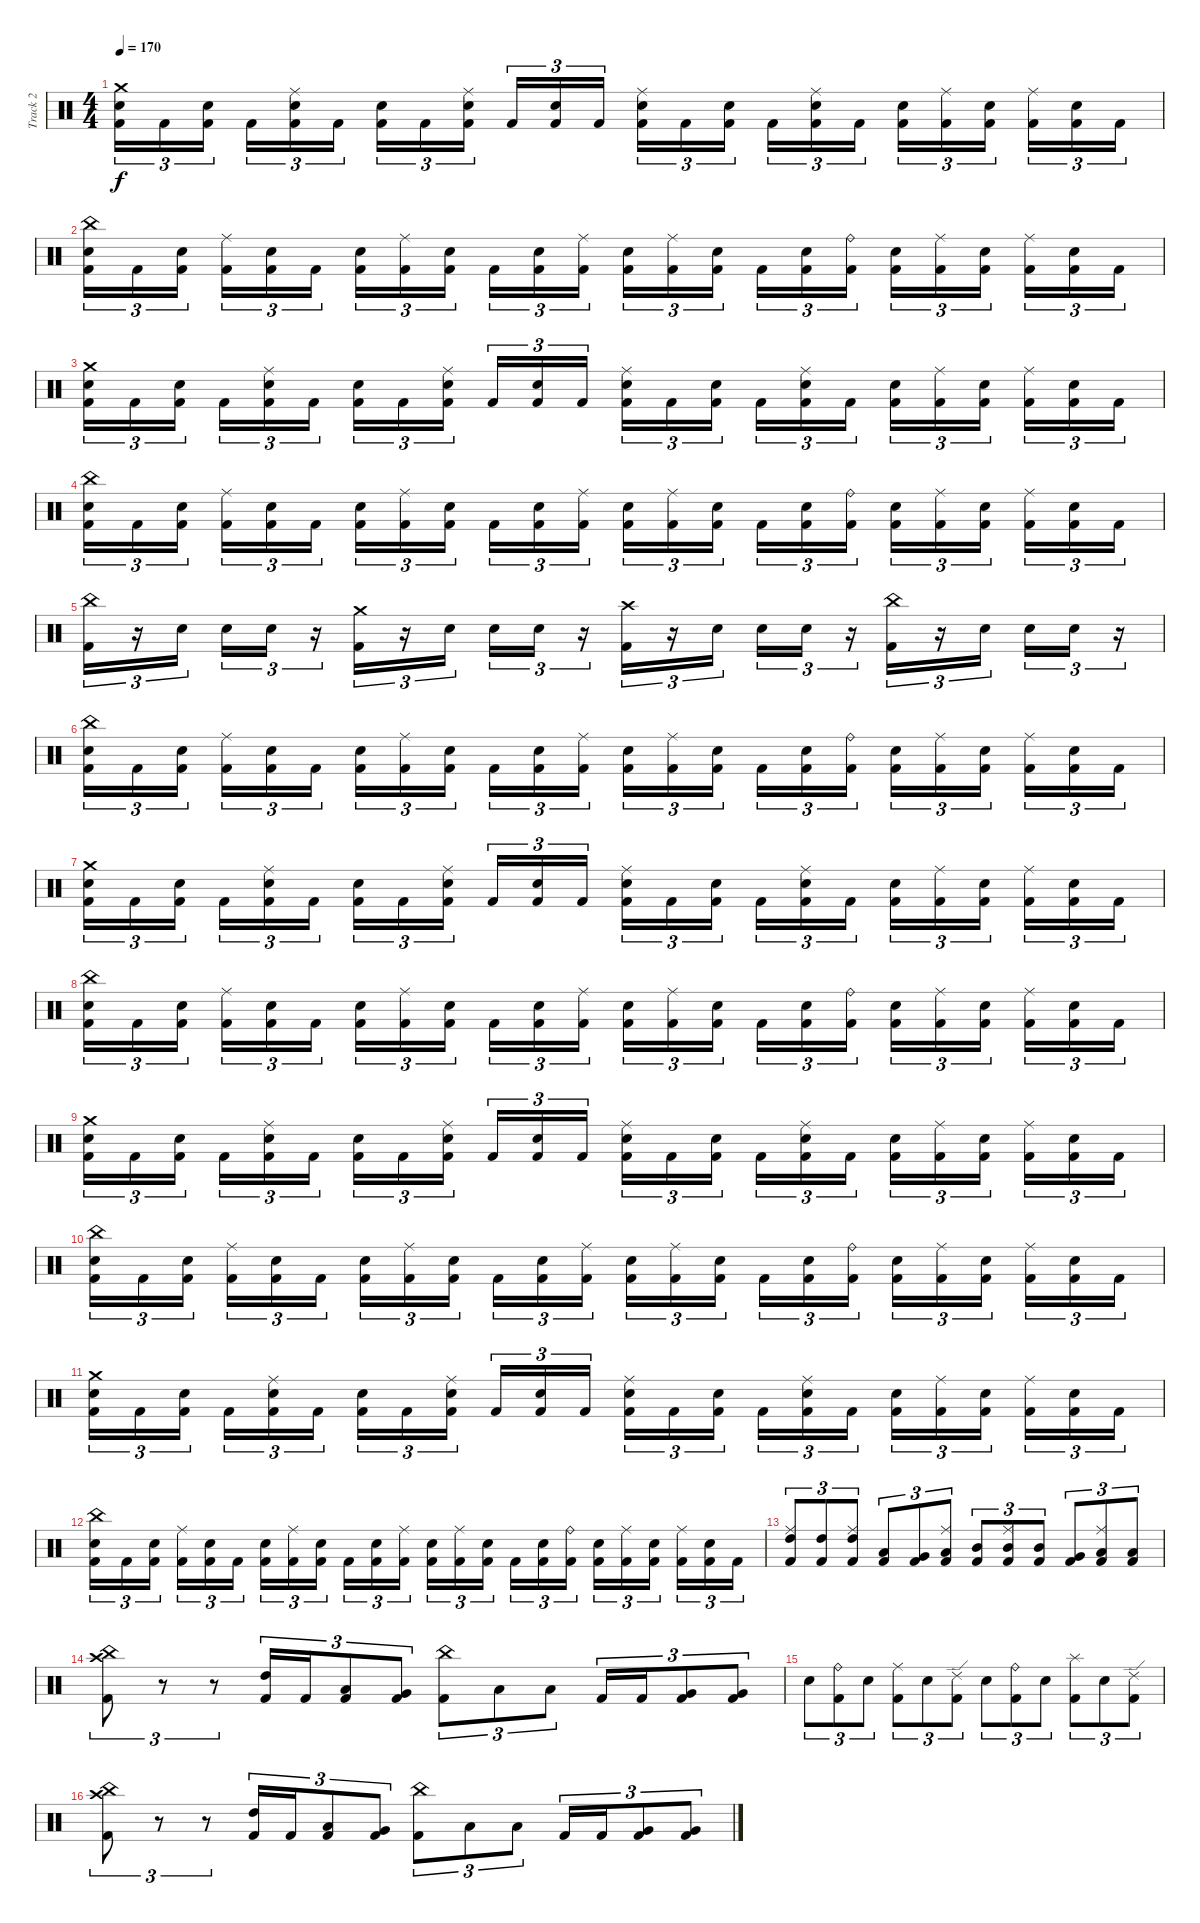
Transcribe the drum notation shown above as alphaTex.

\track ("Track 2" "Track 2") {instrument percussion}
\staff {score}
\articulation defaults
\ts (4 4)
\tempo 170
\clef neutral
\ks c
("Crash medium (hit)" "Electric Snare (hit)" "Kick (hit) 2").16{tu (3 2) dy f} "Kick (hit) 2".16{tu (3 2)} ("Electric Snare (hit)" "Kick (hit) 2").16{tu (3 2)} "Kick (hit) 2".16{tu (3 2)} ("Ride (middle)" "Electric Snare (hit)" "Kick (hit) 2").16{tu (3 2)} "Kick (hit) 2".16{tu (3 2)} ("Electric Snare (hit)" "Kick (hit) 2").16{tu (3 2)} "Kick (hit) 2".16{tu (3 2)} ("Ride (middle)" "Electric Snare (hit)" "Kick (hit) 2").16{tu (3 2)} "Kick (hit) 2".16{tu (3 2)} ("Electric Snare (hit)" "Kick (hit) 2").16{tu (3 2)} "Kick (hit) 2".16{tu (3 2)} ("Ride (middle)" "Electric Snare (hit)" "Kick (hit) 2").16{tu (3 2)} "Kick (hit) 2".16{tu (3 2)} ("Electric Snare (hit)" "Kick (hit) 2").16{tu (3 2)} "Kick (hit) 2".16{tu (3 2)} ("Ride (middle)" "Electric Snare (hit)" "Kick (hit) 2").16{tu (3 2)} "Kick (hit) 2".16{tu (3 2)} ("Electric Snare (hit)" "Kick (hit) 2").16{tu (3 2)} ("Ride (middle)" "Kick (hit) 2").16{tu (3 2)} ("Electric Snare (hit)" "Kick (hit) 2").16{tu (3 2)} ("Ride (middle)" "Kick (hit) 2").16{tu (3 2)} ("Electric Snare (hit)" "Kick (hit) 2").16{tu (3 2)} "Kick (hit) 2".16{tu (3 2)} |
("China (hit)" "Electric Snare (hit)" "Kick (hit) 2").16{tu (3 2)} "Kick (hit) 2".16{tu (3 2)} ("Electric Snare (hit)" "Kick (hit) 2").16{tu (3 2)} ("Ride (middle)" "Kick (hit) 2").16{tu (3 2)} ("Electric Snare (hit)" "Kick (hit) 2").16{tu (3 2)} "Kick (hit) 2".16{tu (3 2)} ("Electric Snare (hit)" "Kick (hit) 2").16{tu (3 2)} ("Ride (middle)" "Kick (hit) 2").16{tu (3 2)} ("Electric Snare (hit)" "Kick (hit) 2").16{tu (3 2)} "Kick (hit) 2".16{tu (3 2)} ("Electric Snare (hit)" "Kick (hit) 2").16{tu (3 2)} ("Ride (middle)" "Kick (hit) 2").16{tu (3 2)} ("Electric Snare (hit)" "Kick (hit) 2").16{tu (3 2)} ("Ride (middle)" "Kick (hit) 2").16{tu (3 2)} ("Electric Snare (hit)" "Kick (hit) 2").16{tu (3 2)} "Kick (hit) 2".16{tu (3 2)} ("Electric Snare (hit)" "Kick (hit) 2").16{tu (3 2)} ("Ride (bell)" "Kick (hit) 2").16{tu (3 2)} ("Electric Snare (hit)" "Kick (hit) 2").16{tu (3 2)} ("Ride (middle)" "Kick (hit) 2").16{tu (3 2)} ("Electric Snare (hit)" "Kick (hit) 2").16{tu (3 2)} ("Ride (middle)" "Kick (hit) 2").16{tu (3 2)} ("Electric Snare (hit)" "Kick (hit) 2").16{tu (3 2)} "Kick (hit) 2".16{tu (3 2)} |
("Crash medium (hit)" "Electric Snare (hit)" "Kick (hit) 2").16{tu (3 2)} "Kick (hit) 2".16{tu (3 2)} ("Electric Snare (hit)" "Kick (hit) 2").16{tu (3 2)} "Kick (hit) 2".16{tu (3 2)} ("Ride (middle)" "Electric Snare (hit)" "Kick (hit) 2").16{tu (3 2)} "Kick (hit) 2".16{tu (3 2)} ("Electric Snare (hit)" "Kick (hit) 2").16{tu (3 2)} "Kick (hit) 2".16{tu (3 2)} ("Ride (middle)" "Electric Snare (hit)" "Kick (hit) 2").16{tu (3 2)} "Kick (hit) 2".16{tu (3 2)} ("Electric Snare (hit)" "Kick (hit) 2").16{tu (3 2)} "Kick (hit) 2".16{tu (3 2)} ("Ride (middle)" "Electric Snare (hit)" "Kick (hit) 2").16{tu (3 2)} "Kick (hit) 2".16{tu (3 2)} ("Electric Snare (hit)" "Kick (hit) 2").16{tu (3 2)} "Kick (hit) 2".16{tu (3 2)} ("Ride (middle)" "Electric Snare (hit)" "Kick (hit) 2").16{tu (3 2)} "Kick (hit) 2".16{tu (3 2)} ("Electric Snare (hit)" "Kick (hit) 2").16{tu (3 2)} ("Ride (middle)" "Kick (hit) 2").16{tu (3 2)} ("Electric Snare (hit)" "Kick (hit) 2").16{tu (3 2)} ("Ride (middle)" "Kick (hit) 2").16{tu (3 2)} ("Electric Snare (hit)" "Kick (hit) 2").16{tu (3 2)} "Kick (hit) 2".16{tu (3 2)} |
("China (hit)" "Electric Snare (hit)" "Kick (hit) 2").16{tu (3 2)} "Kick (hit) 2".16{tu (3 2)} ("Electric Snare (hit)" "Kick (hit) 2").16{tu (3 2)} ("Ride (middle)" "Kick (hit) 2").16{tu (3 2)} ("Electric Snare (hit)" "Kick (hit) 2").16{tu (3 2)} "Kick (hit) 2".16{tu (3 2)} ("Electric Snare (hit)" "Kick (hit) 2").16{tu (3 2)} ("Ride (middle)" "Kick (hit) 2").16{tu (3 2)} ("Electric Snare (hit)" "Kick (hit) 2").16{tu (3 2)} "Kick (hit) 2".16{tu (3 2)} ("Electric Snare (hit)" "Kick (hit) 2").16{tu (3 2)} ("Ride (middle)" "Kick (hit) 2").16{tu (3 2)} ("Electric Snare (hit)" "Kick (hit) 2").16{tu (3 2)} ("Ride (middle)" "Kick (hit) 2").16{tu (3 2)} ("Electric Snare (hit)" "Kick (hit) 2").16{tu (3 2)} "Kick (hit) 2".16{tu (3 2)} ("Electric Snare (hit)" "Kick (hit) 2").16{tu (3 2)} ("Ride (bell)" "Kick (hit) 2").16{tu (3 2)} ("Electric Snare (hit)" "Kick (hit) 2").16{tu (3 2)} ("Ride (middle)" "Kick (hit) 2").16{tu (3 2)} ("Electric Snare (hit)" "Kick (hit) 2").16{tu (3 2)} ("Ride (middle)" "Kick (hit) 2").16{tu (3 2)} ("Electric Snare (hit)" "Kick (hit) 2").16{tu (3 2)} "Kick (hit) 2".16{tu (3 2)} |
("China (hit)" "Kick (hit) 2").16{tu (3 2)} r.16{tu (3 2)} "Electric Snare (hit)".16{tu (3 2)} "Electric Snare (hit)".16{tu (3 2)} "Electric Snare (hit)".16{tu (3 2)} r.16{tu (3 2)} ("Crash medium (hit)" "Kick (hit) 2").16{tu (3 2)} r.16{tu (3 2)} "Electric Snare (hit)".16{tu (3 2)} "Electric Snare (hit)".16{tu (3 2)} "Electric Snare (hit)".16{tu (3 2)} r.16{tu (3 2)} ("Crash high (hit)" "Kick (hit) 2").16{tu (3 2)} r.16{tu (3 2)} "Electric Snare (hit)".16{tu (3 2)} "Electric Snare (hit)".16{tu (3 2)} "Electric Snare (hit)".16{tu (3 2)} r.16{tu (3 2)} ("China (hit)" "Kick (hit) 2").16{tu (3 2)} r.16{tu (3 2)} "Electric Snare (hit)".16{tu (3 2)} "Electric Snare (hit)".16{tu (3 2)} "Electric Snare (hit)".16{tu (3 2)} r.16{tu (3 2)} |
("China (hit)" "Electric Snare (hit)" "Kick (hit) 2").16{tu (3 2)} "Kick (hit) 2".16{tu (3 2)} ("Electric Snare (hit)" "Kick (hit) 2").16{tu (3 2)} ("Ride (middle)" "Kick (hit) 2").16{tu (3 2)} ("Electric Snare (hit)" "Kick (hit) 2").16{tu (3 2)} "Kick (hit) 2".16{tu (3 2)} ("Electric Snare (hit)" "Kick (hit) 2").16{tu (3 2)} ("Ride (middle)" "Kick (hit) 2").16{tu (3 2)} ("Electric Snare (hit)" "Kick (hit) 2").16{tu (3 2)} "Kick (hit) 2".16{tu (3 2)} ("Electric Snare (hit)" "Kick (hit) 2").16{tu (3 2)} ("Ride (middle)" "Kick (hit) 2").16{tu (3 2)} ("Electric Snare (hit)" "Kick (hit) 2").16{tu (3 2)} ("Ride (middle)" "Kick (hit) 2").16{tu (3 2)} ("Electric Snare (hit)" "Kick (hit) 2").16{tu (3 2)} "Kick (hit) 2".16{tu (3 2)} ("Electric Snare (hit)" "Kick (hit) 2").16{tu (3 2)} ("Ride (bell)" "Kick (hit) 2").16{tu (3 2)} ("Electric Snare (hit)" "Kick (hit) 2").16{tu (3 2)} ("Ride (middle)" "Kick (hit) 2").16{tu (3 2)} ("Electric Snare (hit)" "Kick (hit) 2").16{tu (3 2)} ("Ride (middle)" "Kick (hit) 2").16{tu (3 2)} ("Electric Snare (hit)" "Kick (hit) 2").16{tu (3 2)} "Kick (hit) 2".16{tu (3 2)} |
("Crash medium (hit)" "Electric Snare (hit)" "Kick (hit) 2").16{tu (3 2)} "Kick (hit) 2".16{tu (3 2)} ("Electric Snare (hit)" "Kick (hit) 2").16{tu (3 2)} "Kick (hit) 2".16{tu (3 2)} ("Ride (middle)" "Electric Snare (hit)" "Kick (hit) 2").16{tu (3 2)} "Kick (hit) 2".16{tu (3 2)} ("Electric Snare (hit)" "Kick (hit) 2").16{tu (3 2)} "Kick (hit) 2".16{tu (3 2)} ("Ride (middle)" "Electric Snare (hit)" "Kick (hit) 2").16{tu (3 2)} "Kick (hit) 2".16{tu (3 2)} ("Electric Snare (hit)" "Kick (hit) 2").16{tu (3 2)} "Kick (hit) 2".16{tu (3 2)} ("Ride (middle)" "Electric Snare (hit)" "Kick (hit) 2").16{tu (3 2)} "Kick (hit) 2".16{tu (3 2)} ("Electric Snare (hit)" "Kick (hit) 2").16{tu (3 2)} "Kick (hit) 2".16{tu (3 2)} ("Ride (middle)" "Electric Snare (hit)" "Kick (hit) 2").16{tu (3 2)} "Kick (hit) 2".16{tu (3 2)} ("Electric Snare (hit)" "Kick (hit) 2").16{tu (3 2)} ("Ride (middle)" "Kick (hit) 2").16{tu (3 2)} ("Electric Snare (hit)" "Kick (hit) 2").16{tu (3 2)} ("Ride (middle)" "Kick (hit) 2").16{tu (3 2)} ("Electric Snare (hit)" "Kick (hit) 2").16{tu (3 2)} "Kick (hit) 2".16{tu (3 2)} |
("China (hit)" "Electric Snare (hit)" "Kick (hit) 2").16{tu (3 2)} "Kick (hit) 2".16{tu (3 2)} ("Electric Snare (hit)" "Kick (hit) 2").16{tu (3 2)} ("Ride (middle)" "Kick (hit) 2").16{tu (3 2)} ("Electric Snare (hit)" "Kick (hit) 2").16{tu (3 2)} "Kick (hit) 2".16{tu (3 2)} ("Electric Snare (hit)" "Kick (hit) 2").16{tu (3 2)} ("Ride (middle)" "Kick (hit) 2").16{tu (3 2)} ("Electric Snare (hit)" "Kick (hit) 2").16{tu (3 2)} "Kick (hit) 2".16{tu (3 2)} ("Electric Snare (hit)" "Kick (hit) 2").16{tu (3 2)} ("Ride (middle)" "Kick (hit) 2").16{tu (3 2)} ("Electric Snare (hit)" "Kick (hit) 2").16{tu (3 2)} ("Ride (middle)" "Kick (hit) 2").16{tu (3 2)} ("Electric Snare (hit)" "Kick (hit) 2").16{tu (3 2)} "Kick (hit) 2".16{tu (3 2)} ("Electric Snare (hit)" "Kick (hit) 2").16{tu (3 2)} ("Ride (bell)" "Kick (hit) 2").16{tu (3 2)} ("Electric Snare (hit)" "Kick (hit) 2").16{tu (3 2)} ("Ride (middle)" "Kick (hit) 2").16{tu (3 2)} ("Electric Snare (hit)" "Kick (hit) 2").16{tu (3 2)} ("Ride (middle)" "Kick (hit) 2").16{tu (3 2)} ("Electric Snare (hit)" "Kick (hit) 2").16{tu (3 2)} "Kick (hit) 2".16{tu (3 2)} |
("Crash medium (hit)" "Electric Snare (hit)" "Kick (hit) 2").16{tu (3 2)} "Kick (hit) 2".16{tu (3 2)} ("Electric Snare (hit)" "Kick (hit) 2").16{tu (3 2)} "Kick (hit) 2".16{tu (3 2)} ("Ride (middle)" "Electric Snare (hit)" "Kick (hit) 2").16{tu (3 2)} "Kick (hit) 2".16{tu (3 2)} ("Electric Snare (hit)" "Kick (hit) 2").16{tu (3 2)} "Kick (hit) 2".16{tu (3 2)} ("Ride (middle)" "Electric Snare (hit)" "Kick (hit) 2").16{tu (3 2)} "Kick (hit) 2".16{tu (3 2)} ("Electric Snare (hit)" "Kick (hit) 2").16{tu (3 2)} "Kick (hit) 2".16{tu (3 2)} ("Ride (middle)" "Electric Snare (hit)" "Kick (hit) 2").16{tu (3 2)} "Kick (hit) 2".16{tu (3 2)} ("Electric Snare (hit)" "Kick (hit) 2").16{tu (3 2)} "Kick (hit) 2".16{tu (3 2)} ("Ride (middle)" "Electric Snare (hit)" "Kick (hit) 2").16{tu (3 2)} "Kick (hit) 2".16{tu (3 2)} ("Electric Snare (hit)" "Kick (hit) 2").16{tu (3 2)} ("Ride (middle)" "Kick (hit) 2").16{tu (3 2)} ("Electric Snare (hit)" "Kick (hit) 2").16{tu (3 2)} ("Ride (middle)" "Kick (hit) 2").16{tu (3 2)} ("Electric Snare (hit)" "Kick (hit) 2").16{tu (3 2)} "Kick (hit) 2".16{tu (3 2)} |
("China (hit)" "Electric Snare (hit)" "Kick (hit) 2").16{tu (3 2)} "Kick (hit) 2".16{tu (3 2)} ("Electric Snare (hit)" "Kick (hit) 2").16{tu (3 2)} ("Ride (middle)" "Kick (hit) 2").16{tu (3 2)} ("Electric Snare (hit)" "Kick (hit) 2").16{tu (3 2)} "Kick (hit) 2".16{tu (3 2)} ("Electric Snare (hit)" "Kick (hit) 2").16{tu (3 2)} ("Ride (middle)" "Kick (hit) 2").16{tu (3 2)} ("Electric Snare (hit)" "Kick (hit) 2").16{tu (3 2)} "Kick (hit) 2".16{tu (3 2)} ("Electric Snare (hit)" "Kick (hit) 2").16{tu (3 2)} ("Ride (middle)" "Kick (hit) 2").16{tu (3 2)} ("Electric Snare (hit)" "Kick (hit) 2").16{tu (3 2)} ("Ride (middle)" "Kick (hit) 2").16{tu (3 2)} ("Electric Snare (hit)" "Kick (hit) 2").16{tu (3 2)} "Kick (hit) 2".16{tu (3 2)} ("Electric Snare (hit)" "Kick (hit) 2").16{tu (3 2)} ("Ride (bell)" "Kick (hit) 2").16{tu (3 2)} ("Electric Snare (hit)" "Kick (hit) 2").16{tu (3 2)} ("Ride (middle)" "Kick (hit) 2").16{tu (3 2)} ("Electric Snare (hit)" "Kick (hit) 2").16{tu (3 2)} ("Ride (middle)" "Kick (hit) 2").16{tu (3 2)} ("Electric Snare (hit)" "Kick (hit) 2").16{tu (3 2)} "Kick (hit) 2".16{tu (3 2)} |
("Crash medium (hit)" "Electric Snare (hit)" "Kick (hit) 2").16{tu (3 2)} "Kick (hit) 2".16{tu (3 2)} ("Electric Snare (hit)" "Kick (hit) 2").16{tu (3 2)} "Kick (hit) 2".16{tu (3 2)} ("Ride (middle)" "Electric Snare (hit)" "Kick (hit) 2").16{tu (3 2)} "Kick (hit) 2".16{tu (3 2)} ("Electric Snare (hit)" "Kick (hit) 2").16{tu (3 2)} "Kick (hit) 2".16{tu (3 2)} ("Ride (middle)" "Electric Snare (hit)" "Kick (hit) 2").16{tu (3 2)} "Kick (hit) 2".16{tu (3 2)} ("Electric Snare (hit)" "Kick (hit) 2").16{tu (3 2)} "Kick (hit) 2".16{tu (3 2)} ("Ride (middle)" "Electric Snare (hit)" "Kick (hit) 2").16{tu (3 2)} "Kick (hit) 2".16{tu (3 2)} ("Electric Snare (hit)" "Kick (hit) 2").16{tu (3 2)} "Kick (hit) 2".16{tu (3 2)} ("Ride (middle)" "Electric Snare (hit)" "Kick (hit) 2").16{tu (3 2)} "Kick (hit) 2".16{tu (3 2)} ("Electric Snare (hit)" "Kick (hit) 2").16{tu (3 2)} ("Ride (middle)" "Kick (hit) 2").16{tu (3 2)} ("Electric Snare (hit)" "Kick (hit) 2").16{tu (3 2)} ("Ride (middle)" "Kick (hit) 2").16{tu (3 2)} ("Electric Snare (hit)" "Kick (hit) 2").16{tu (3 2)} "Kick (hit) 2".16{tu (3 2)} |
("China (hit)" "Electric Snare (hit)" "Kick (hit) 2").16{tu (3 2)} "Kick (hit) 2".16{tu (3 2)} ("Electric Snare (hit)" "Kick (hit) 2").16{tu (3 2)} ("Ride (middle)" "Kick (hit) 2").16{tu (3 2)} ("Electric Snare (hit)" "Kick (hit) 2").16{tu (3 2)} "Kick (hit) 2".16{tu (3 2)} ("Electric Snare (hit)" "Kick (hit) 2").16{tu (3 2)} ("Ride (middle)" "Kick (hit) 2").16{tu (3 2)} ("Electric Snare (hit)" "Kick (hit) 2").16{tu (3 2)} "Kick (hit) 2".16{tu (3 2)} ("Electric Snare (hit)" "Kick (hit) 2").16{tu (3 2)} ("Ride (middle)" "Kick (hit) 2").16{tu (3 2)} ("Electric Snare (hit)" "Kick (hit) 2").16{tu (3 2)} ("Ride (middle)" "Kick (hit) 2").16{tu (3 2)} ("Electric Snare (hit)" "Kick (hit) 2").16{tu (3 2)} "Kick (hit) 2".16{tu (3 2)} ("Electric Snare (hit)" "Kick (hit) 2").16{tu (3 2)} ("Ride (bell)" "Kick (hit) 2").16{tu (3 2)} ("Electric Snare (hit)" "Kick (hit) 2").16{tu (3 2)} ("Ride (middle)" "Kick (hit) 2").16{tu (3 2)} ("Electric Snare (hit)" "Kick (hit) 2").16{tu (3 2)} ("Ride (middle)" "Kick (hit) 2").16{tu (3 2)} ("Electric Snare (hit)" "Kick (hit) 2").16{tu (3 2)} "Kick (hit) 2".16{tu (3 2)} |
("Ride (middle)" "High Tom (hit)" "Kick (hit) 2").8{tu (3 2)} ("High Tom (hit)" "Kick (hit) 2").8{tu (3 2)} ("Ride (middle)" "High Tom (hit)" "Kick (hit) 2").8{tu (3 2)} ("Low Tom (hit)" "Kick (hit) 2").8{tu (3 2)} ("Very Low Tom (hit)" "Kick (hit) 2").8{tu (3 2)} ("Ride (middle)" "Low Floor Tom (hit)" "Kick (hit) 2").8{tu (3 2)} ("Mid Tom (hit)" "Kick (hit) 2").8{tu (3 2)} ("Ride (middle)" "Mid Tom (hit)" "Kick (hit) 2").8{tu (3 2)} ("Mid Tom (hit)" "Kick (hit) 2").8{tu (3 2)} ("Very Low Tom (hit)" "Kick (hit) 2").8{tu (3 2)} ("Ride (middle)" "Low Floor Tom (hit)" "Kick (hit) 2").8{tu (3 2)} ("Low Floor Tom (hit)" "Kick (hit) 2").8{tu (3 2)} |
("China (hit)" "Crash high (hit)" "Kick (hit) 2").8{tu (3 2)} r.8{tu (3 2)} r.8{tu (3 2)} ("High Tom (hit)" "Kick (hit) 2").16{tu (3 2)} "Kick (hit) 2".16{tu (3 2)} ("Low Tom (hit)" "Kick (hit) 2").8{tu (3 2)} ("Very Low Tom (hit)" "Kick (hit) 2").8{tu (3 2)} ("China (hit)" "Kick (hit) 2").8{tu (3 2)} "Low Floor Tom (hit)".8{tu (3 2)} "Low Floor Tom (hit)".8{tu (3 2)} "Kick (hit) 2".16{tu (3 2)} "Kick (hit) 2".16{tu (3 2)} ("Very Low Tom (hit)" "Kick (hit) 2").8{tu (3 2)} ("Very Low Tom (hit)" "Kick (hit) 2").8{tu (3 2)} |
"Electric Snare (hit)".8{tu (3 2)} ("Ride (bell)" "Kick (hit) 2").8{tu (3 2)} "Electric Snare (hit)".8{tu (3 2)} ("Ride (middle)" "Kick (hit) 2").8{tu (3 2)} "Electric Snare (hit)".8{tu (3 2)} ("Ride (edge) 2" "Kick (hit) 2").8{tu (3 2)} "Electric Snare (hit)".8{tu (3 2)} ("Ride (bell)" "Kick (hit) 2").8{tu (3 2)} "Electric Snare (hit)".8{tu (3 2)} ("Splash (hit)" "Kick (hit) 2").8{tu (3 2)} "Electric Snare (hit)".8{tu (3 2)} ("Ride (edge) 2" "Kick (hit) 2").8{tu (3 2)} |
("China (hit)" "Crash high (hit)" "Kick (hit) 2").8{tu (3 2)} r.8{tu (3 2)} r.8{tu (3 2)} ("High Tom (hit)" "Kick (hit) 2").16{tu (3 2)} "Kick (hit) 2".16{tu (3 2)} ("Low Tom (hit)" "Kick (hit) 2").8{tu (3 2)} ("Very Low Tom (hit)" "Kick (hit) 2").8{tu (3 2)} ("China (hit)" "Kick (hit) 2").8{tu (3 2)} "Low Floor Tom (hit)".8{tu (3 2)} "Low Floor Tom (hit)".8{tu (3 2)} "Kick (hit) 2".16{tu (3 2)} "Kick (hit) 2".16{tu (3 2)} ("Very Low Tom (hit)" "Kick (hit) 2").8{tu (3 2)} ("Very Low Tom (hit)" "Kick (hit) 2").8{tu (3 2)}
